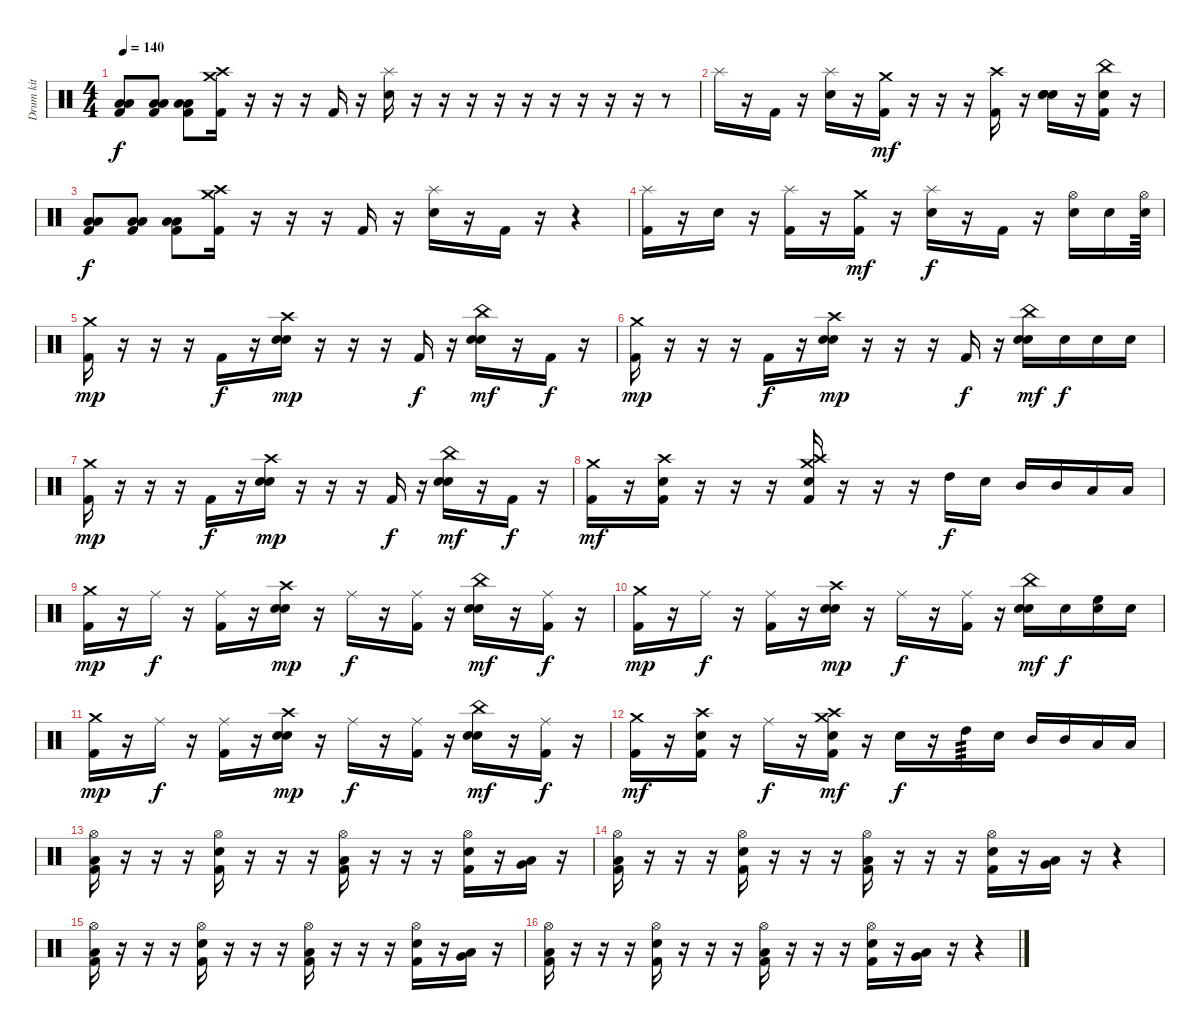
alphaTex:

\track ("Drum kit" "Drum kit") {solo instrument percussion}
\staff {score}
\articulation defaults
\ts (4 4)
\tempo 140
\clef neutral
\ks c
("Low Tom (hit)" "Low Floor Tom (hit)" "Kick (hit) 2").8{dy f} ("Low Tom (hit)" "Low Floor Tom (hit)" "Kick (hit) 2").8 ("Low Tom (hit)" "Low Floor Tom (hit)" "Kick (hit) 2").8 ("Crash medium (hit)" "Crash high (hit)" "Kick (hit) 2").16 r.16 r.16 r.16 "Kick (hit) 2".16 r.16 ("Splash (hit)" "Electric Snare (hit)").16 r.16 r.16 r.16 r.16 r.16 r.16 r.16 r.16 r.16 r.8 |
"Splash (hit)".16 r.16 "Kick (hit) 2".16 r.16 ("Splash (hit)" "Electric Snare (hit)").16 r.16 ("Crash medium (hit)" "Kick (hit) 2").16{dy mf} r.16 r.16 r.16 ("Crash high (hit)" "Kick (hit) 2").16 r.16 ("Snare (hit)" "Electric Snare (hit)" "Snare (hit)").16 r.16 ("China (hit)" "Snare (hit)" "Kick (hit) 2").16 r.16 |
("Low Tom (hit)" "Low Floor Tom (hit)" "Kick (hit) 2").8{dy f} ("Low Tom (hit)" "Low Floor Tom (hit)" "Kick (hit) 2").8 ("Low Tom (hit)" "Low Floor Tom (hit)" "Kick (hit) 2").8 ("Crash medium (hit)" "Crash high (hit)" "Kick (hit) 2").16 r.16 r.16 r.16 "Kick (hit) 2".16 r.16 ("Splash (hit)" "Electric Snare (hit)").16 r.16 "Kick (hit) 2".16 r.16 r.4 |
("Splash (hit)" "Kick (hit) 2").16 r.16 "Electric Snare (hit)".16 r.16 ("Splash (hit)" "Kick (hit) 2").16 r.16 ("Crash medium (hit)" "Kick (hit) 2").16{dy mf} r.16 ("Splash (hit)" "Electric Snare (hit)").16{dy f} r.16 "Kick (hit) 2".16 r.16 ("Hi-Hat (open)" "Electric Snare (hit)").16 "Snare (hit)".16 ("Hi-Hat (open)" "Electric Snare (hit)").64 |
("Crash medium (hit)" "Kick (hit) 2").16{dy mp} r.16 r.16 r.16 "Kick (hit) 2".16{dy f} r.16 ("Crash high (hit)" "Electric Snare (hit)" "Snare (hit)").16{dy mp} r.16 r.16 r.16 "Kick (hit) 2".16{dy f} r.16 ("China (hit)" "Electric Snare (hit)" "Snare (hit)").16{dy mf} r.16 "Kick (hit) 2".16{dy f} r.16 |
("Crash medium (hit)" "Kick (hit) 2").16{dy mp} r.16 r.16 r.16 "Kick (hit) 2".16{dy f} r.16 ("Crash high (hit)" "Electric Snare (hit)" "Snare (hit)").16{dy mp} r.16 r.16 r.16 "Kick (hit) 2".16{dy f} r.16 ("China (hit)" "Electric Snare (hit)" "Snare (hit)").16{dy mf} "Electric Snare (hit)".16{dy f} "Electric Snare (hit)".16 "Snare (hit)".16 |
("Crash medium (hit)" "Kick (hit) 2").16{dy mp} r.16 r.16 r.16 "Kick (hit) 2".16{dy f} r.16 ("Crash high (hit)" "Electric Snare (hit)" "Snare (hit)").16{dy mp} r.16 r.16 r.16 "Kick (hit) 2".16{dy f} r.16 ("China (hit)" "Electric Snare (hit)" "Snare (hit)").16{dy mf} r.16 "Kick (hit) 2".16{dy f} r.16 |
("Crash medium (hit)" "Kick (hit) 2").16{dy mf} r.16 ("Crash high (hit)" "Electric Snare (hit)" "Kick (hit) 2").16 r.16 r.16 r.16 ("Crash medium (hit)" "Crash high (hit)" "Snare (hit)" "Kick (hit) 2").16 r.16 r.16 r.16 "High Tom (hit)".16{dy f} "Snare (hit)".16 "Mid Tom (hit)".16 "Mid Tom (hit)".16 "Low Tom (hit)".16 "Low Tom (hit)".16 |
("Crash medium (hit)" "Kick (hit) 2").16{dy mp} r.16 "Ride (middle)".16{dy f} r.16 ("Ride (middle)" "Kick (hit) 2").16 r.16 ("Crash high (hit)" "Electric Snare (hit)" "Snare (hit)").16{dy mp} r.16 "Ride (middle)".16{dy f} r.16 ("Ride (middle)" "Kick (hit) 2").16 r.16 ("China (hit)" "Electric Snare (hit)" "Snare (hit)").16{dy mf} r.16 ("Ride (middle)" "Kick (hit) 2").16{dy f} r.16 |
("Crash medium (hit)" "Kick (hit) 2").16{dy mp} r.16 "Ride (middle)".16{dy f} r.16 ("Ride (middle)" "Kick (hit) 2").16 r.16 ("Crash high (hit)" "Electric Snare (hit)" "Snare (hit)").16{dy mp} r.16 "Ride (middle)".16{dy f} r.16 ("Ride (middle)" "Kick (hit) 2").16 r.16 ("China (hit)" "Electric Snare (hit)" "Snare (hit)").16{dy mf} "Electric Snare (hit)".16{dy f} ("High Floor Tom (hit)" "Electric Snare (hit)").16 "Snare (hit)".16 |
("Crash medium (hit)" "Kick (hit) 2").16{dy mp} r.16 "Ride (middle)".16{dy f} r.16 ("Ride (middle)" "Kick (hit) 2").16 r.16 ("Crash high (hit)" "Electric Snare (hit)" "Snare (hit)").16{dy mp} r.16 "Ride (middle)".16{dy f} r.16 ("Ride (middle)" "Kick (hit) 2").16 r.16 ("China (hit)" "Electric Snare (hit)" "Snare (hit)").16{dy mf} r.16 ("Ride (middle)" "Kick (hit) 2").16{dy f} r.16 |
("Crash medium (hit)" "Kick (hit) 2").16{dy mf} r.16 ("Crash high (hit)" "Electric Snare (hit)" "Kick (hit) 2").16 r.16 "Ride (middle)".16{dy f} r.16 ("Crash medium (hit)" "Crash high (hit)" "Snare (hit)" "Kick (hit) 2").16{dy mf} r.16 "Electric Snare (hit)".16{dy f} r.16 "High Tom (hit)".16{tp 3} "Snare (hit)".16 "Mid Tom (hit)".16 "Mid Tom (hit)".16 "Low Tom (hit)".16 "Low Tom (hit)".16 |
("Hi-Hat (open)" "Low Tom (hit)" "Kick (hit) 2").16 r.16 r.16 r.16 ("Hi-Hat (open)" "Electric Snare (hit)" "Kick (hit) 2").16 r.16 r.16 r.16 ("Hi-Hat (open)" "Low Tom (hit)" "Kick (hit) 2").16 r.16 r.16 r.16 ("Hi-Hat (open)" "Electric Snare (hit)" "Kick (hit) 2").16 r.16 ("Low Tom (hit)" "Very Low Tom (hit)").16 r.16 |
("Hi-Hat (open)" "Low Tom (hit)" "Kick (hit) 2").16 r.16 r.16 r.16 ("Hi-Hat (open)" "Electric Snare (hit)" "Kick (hit) 2").16 r.16 r.16 r.16 ("Hi-Hat (open)" "Low Tom (hit)" "Kick (hit) 2").16 r.16 r.16 r.16 ("Hi-Hat (open)" "Electric Snare (hit)" "Kick (hit) 2").16 r.16 ("Low Tom (hit)" "Very Low Tom (hit)").16 r.16 r.4 |
("Hi-Hat (open)" "Low Tom (hit)" "Kick (hit) 2").16 r.16 r.16 r.16 ("Hi-Hat (open)" "Electric Snare (hit)" "Kick (hit) 2").16 r.16 r.16 r.16 ("Hi-Hat (open)" "Low Tom (hit)" "Kick (hit) 2").16 r.16 r.16 r.16 ("Hi-Hat (open)" "Electric Snare (hit)" "Kick (hit) 2").16 r.16 ("Low Tom (hit)" "Very Low Tom (hit)").16 r.16 |
("Hi-Hat (open)" "Low Tom (hit)" "Kick (hit) 2").16 r.16 r.16 r.16 ("Hi-Hat (open)" "Electric Snare (hit)" "Kick (hit) 2").16 r.16 r.16 r.16 ("Hi-Hat (open)" "Low Tom (hit)" "Kick (hit) 2").16 r.16 r.16 r.16 ("Hi-Hat (open)" "Electric Snare (hit)" "Kick (hit) 2").16 r.16 ("Low Tom (hit)" "Very Low Tom (hit)").16 r.16 r.4
